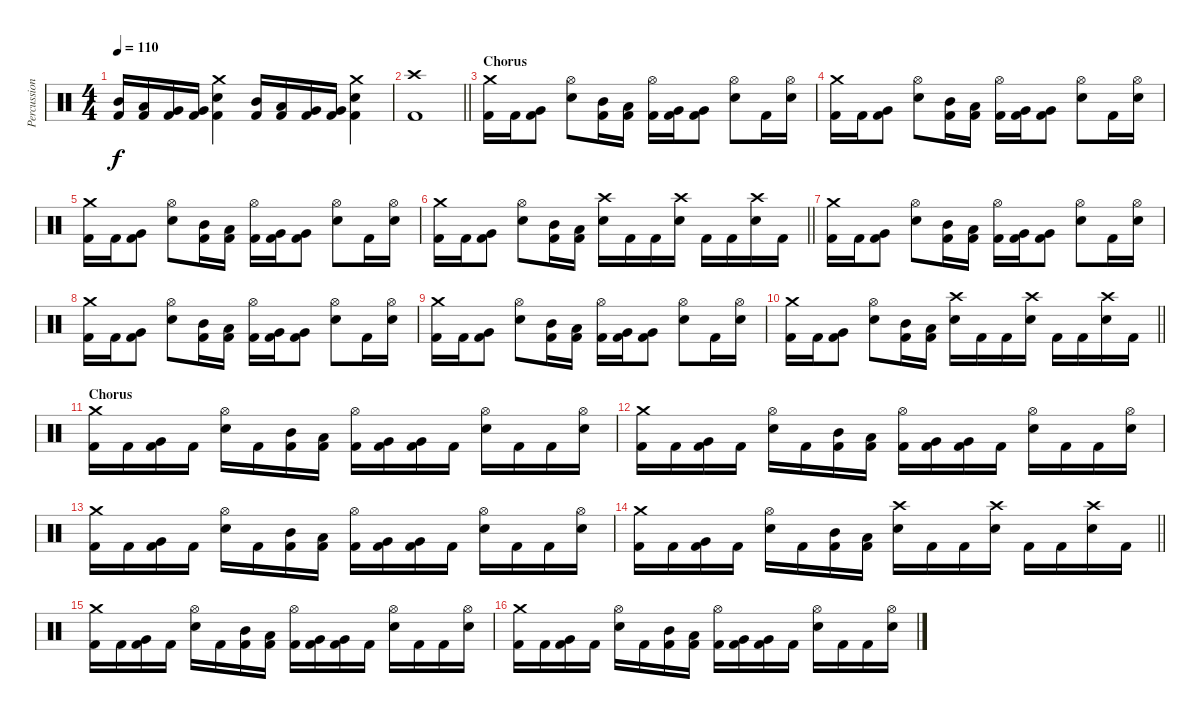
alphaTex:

\track ("Percussion" "Percussion") {instrument percussion}
\staff {score}
\articulation defaults
\ts (4 4)
\tempo 110
\clef neutral
\ks c
("Mid Tom (hit)" "Kick (hit) 2").16{dy f} ("Low Tom (hit)" "Kick (hit) 2").16 ("Very Low Tom (hit)" "Kick (hit) 2").16 ("Very Low Tom (hit)" "Kick (hit) 2").16 ("Snare (hit) 2" "Kick (hit) 2" "Crash medium (hit)").4 ("Mid Tom (hit)" "Kick (hit) 2").16 ("Low Tom (hit)" "Kick (hit) 2").16 ("Very Low Tom (hit)" "Kick (hit) 2").16 ("Very Low Tom (hit)" "Kick (hit) 2").16 ("Snare (hit) 2" "Kick (hit) 2" "Crash medium (hit)").4 |
\barLineRight lightlight
("Kick (hit) 2" "Crash high (hit)").1 |
\section ("" "Chorus")
("Kick (hit) 2" "Crash medium (hit)").16 "Kick (hit) 2".16 ("Very Low Tom (hit)" "Kick (hit) 2").8 ("Hi-Hat (open)" "Snare (hit) 2").8 ("Mid Tom (hit)" "Kick (hit) 2").16 ("Low Tom (hit)" "Kick (hit) 2").16 ("Hi-Hat (open)" "Kick (hit) 2").16 ("Very Low Tom (hit)" "Kick (hit) 2").16 ("Very Low Tom (hit)" "Kick (hit) 2").8 ("Hi-Hat (open)" "Snare (hit) 2").8 "Kick (hit) 2".16 ("Hi-Hat (open)" "Snare (hit) 2").16 |
("Kick (hit) 2" "Crash medium (hit)").16 "Kick (hit) 2".16 ("Very Low Tom (hit)" "Kick (hit) 2").8 ("Hi-Hat (open)" "Snare (hit) 2").8 ("Mid Tom (hit)" "Kick (hit) 2").16 ("Low Tom (hit)" "Kick (hit) 2").16 ("Hi-Hat (open)" "Kick (hit) 2").16 ("Very Low Tom (hit)" "Kick (hit) 2").16 ("Very Low Tom (hit)" "Kick (hit) 2").8 ("Hi-Hat (open)" "Snare (hit) 2").8 "Kick (hit) 2".16 ("Hi-Hat (open)" "Snare (hit) 2").16 |
("Kick (hit) 2" "Crash medium (hit)").16 "Kick (hit) 2".16 ("Very Low Tom (hit)" "Kick (hit) 2").8 ("Hi-Hat (open)" "Snare (hit) 2").8 ("Mid Tom (hit)" "Kick (hit) 2").16 ("Low Tom (hit)" "Kick (hit) 2").16 ("Hi-Hat (open)" "Kick (hit) 2").16 ("Very Low Tom (hit)" "Kick (hit) 2").16 ("Very Low Tom (hit)" "Kick (hit) 2").8 ("Hi-Hat (open)" "Snare (hit) 2").8 "Kick (hit) 2".16 ("Hi-Hat (open)" "Snare (hit) 2").16 |
\barLineRight lightlight
("Kick (hit) 2" "Crash medium (hit)").16 "Kick (hit) 2".16 ("Very Low Tom (hit)" "Kick (hit) 2").8 ("Hi-Hat (open)" "Snare (hit) 2").8 ("Mid Tom (hit)" "Kick (hit) 2").16 ("Low Tom (hit)" "Kick (hit) 2").16 ("Snare (hit) 2" "Crash high (hit)").16 "Kick (hit) 2".16 "Kick (hit) 2".16 ("Snare (hit) 2" "Crash high (hit)").16 "Kick (hit) 2".16 "Kick (hit) 2".16 ("Snare (hit) 2" "Crash high (hit)").16 "Kick (hit) 2".16 |
("Kick (hit) 2" "Crash medium (hit)").16 "Kick (hit) 2".16 ("Very Low Tom (hit)" "Kick (hit) 2").8 ("Hi-Hat (open)" "Snare (hit) 2").8 ("Mid Tom (hit)" "Kick (hit) 2").16 ("Low Tom (hit)" "Kick (hit) 2").16 ("Hi-Hat (open)" "Kick (hit) 2").16 ("Very Low Tom (hit)" "Kick (hit) 2").16 ("Very Low Tom (hit)" "Kick (hit) 2").8 ("Hi-Hat (open)" "Snare (hit) 2").8 "Kick (hit) 2".16 ("Hi-Hat (open)" "Snare (hit) 2").16 |
("Kick (hit) 2" "Crash medium (hit)").16 "Kick (hit) 2".16 ("Very Low Tom (hit)" "Kick (hit) 2").8 ("Hi-Hat (open)" "Snare (hit) 2").8 ("Mid Tom (hit)" "Kick (hit) 2").16 ("Low Tom (hit)" "Kick (hit) 2").16 ("Hi-Hat (open)" "Kick (hit) 2").16 ("Very Low Tom (hit)" "Kick (hit) 2").16 ("Very Low Tom (hit)" "Kick (hit) 2").8 ("Hi-Hat (open)" "Snare (hit) 2").8 "Kick (hit) 2".16 ("Hi-Hat (open)" "Snare (hit) 2").16 |
("Kick (hit) 2" "Crash medium (hit)").16 "Kick (hit) 2".16 ("Very Low Tom (hit)" "Kick (hit) 2").8 ("Hi-Hat (open)" "Snare (hit) 2").8 ("Mid Tom (hit)" "Kick (hit) 2").16 ("Low Tom (hit)" "Kick (hit) 2").16 ("Hi-Hat (open)" "Kick (hit) 2").16 ("Very Low Tom (hit)" "Kick (hit) 2").16 ("Very Low Tom (hit)" "Kick (hit) 2").8 ("Hi-Hat (open)" "Snare (hit) 2").8 "Kick (hit) 2".16 ("Hi-Hat (open)" "Snare (hit) 2").16 |
\barLineRight lightlight
("Kick (hit) 2" "Crash medium (hit)").16 "Kick (hit) 2".16 ("Very Low Tom (hit)" "Kick (hit) 2").8 ("Hi-Hat (open)" "Snare (hit) 2").8 ("Mid Tom (hit)" "Kick (hit) 2").16 ("Low Tom (hit)" "Kick (hit) 2").16 ("Snare (hit) 2" "Crash high (hit)").16 "Kick (hit) 2".16 "Kick (hit) 2".16 ("Snare (hit) 2" "Crash high (hit)").16 "Kick (hit) 2".16 "Kick (hit) 2".16 ("Snare (hit) 2" "Crash high (hit)").16 "Kick (hit) 2".16 |
\section ("" "Chorus")
("Kick (hit) 2" "Crash medium (hit)").16 "Kick (hit) 2".16 ("Very Low Tom (hit)" "Kick (hit) 2").16 "Kick (hit) 2".16 ("Hi-Hat (open)" "Snare (hit) 2").16 "Kick (hit) 2".16 ("Mid Tom (hit)" "Kick (hit) 2").16 ("Low Tom (hit)" "Kick (hit) 2").16 ("Hi-Hat (open)" "Kick (hit) 2").16 ("Very Low Tom (hit)" "Kick (hit) 2").16 ("Very Low Tom (hit)" "Kick (hit) 2").16 "Kick (hit) 2".16 ("Hi-Hat (open)" "Snare (hit) 2").16 "Kick (hit) 2".16 "Kick (hit) 2".16 ("Hi-Hat (open)" "Snare (hit) 2").16 |
("Kick (hit) 2" "Crash medium (hit)").16 "Kick (hit) 2".16 ("Very Low Tom (hit)" "Kick (hit) 2").16 "Kick (hit) 2".16 ("Hi-Hat (open)" "Snare (hit) 2").16 "Kick (hit) 2".16 ("Mid Tom (hit)" "Kick (hit) 2").16 ("Low Tom (hit)" "Kick (hit) 2").16 ("Hi-Hat (open)" "Kick (hit) 2").16 ("Very Low Tom (hit)" "Kick (hit) 2").16 ("Very Low Tom (hit)" "Kick (hit) 2").16 "Kick (hit) 2".16 ("Hi-Hat (open)" "Snare (hit) 2").16 "Kick (hit) 2".16 "Kick (hit) 2".16 ("Hi-Hat (open)" "Snare (hit) 2").16 |
("Kick (hit) 2" "Crash medium (hit)").16 "Kick (hit) 2".16 ("Very Low Tom (hit)" "Kick (hit) 2").16 "Kick (hit) 2".16 ("Hi-Hat (open)" "Snare (hit) 2").16 "Kick (hit) 2".16 ("Mid Tom (hit)" "Kick (hit) 2").16 ("Low Tom (hit)" "Kick (hit) 2").16 ("Hi-Hat (open)" "Kick (hit) 2").16 ("Very Low Tom (hit)" "Kick (hit) 2").16 ("Very Low Tom (hit)" "Kick (hit) 2").16 "Kick (hit) 2".16 ("Hi-Hat (open)" "Snare (hit) 2").16 "Kick (hit) 2".16 "Kick (hit) 2".16 ("Hi-Hat (open)" "Snare (hit) 2").16 |
\barLineRight lightlight
("Kick (hit) 2" "Crash medium (hit)").16 "Kick (hit) 2".16 ("Very Low Tom (hit)" "Kick (hit) 2").16 "Kick (hit) 2".16 ("Hi-Hat (open)" "Snare (hit) 2").16 "Kick (hit) 2".16 ("Mid Tom (hit)" "Kick (hit) 2").16 ("Low Tom (hit)" "Kick (hit) 2").16 ("Snare (hit) 2" "Crash high (hit)").16 "Kick (hit) 2".16 "Kick (hit) 2".16 ("Snare (hit) 2" "Crash high (hit)").16 "Kick (hit) 2".16 "Kick (hit) 2".16 ("Snare (hit) 2" "Crash high (hit)").16 "Kick (hit) 2".16 |
("Kick (hit) 2" "Crash medium (hit)").16 "Kick (hit) 2".16 ("Very Low Tom (hit)" "Kick (hit) 2").16 "Kick (hit) 2".16 ("Hi-Hat (open)" "Snare (hit) 2").16 "Kick (hit) 2".16 ("Mid Tom (hit)" "Kick (hit) 2").16 ("Low Tom (hit)" "Kick (hit) 2").16 ("Hi-Hat (open)" "Kick (hit) 2").16 ("Very Low Tom (hit)" "Kick (hit) 2").16 ("Very Low Tom (hit)" "Kick (hit) 2").16 "Kick (hit) 2".16 ("Hi-Hat (open)" "Snare (hit) 2").16 "Kick (hit) 2".16 "Kick (hit) 2".16 ("Hi-Hat (open)" "Snare (hit) 2").16 |
("Kick (hit) 2" "Crash medium (hit)").16 "Kick (hit) 2".16 ("Very Low Tom (hit)" "Kick (hit) 2").16 "Kick (hit) 2".16 ("Hi-Hat (open)" "Snare (hit) 2").16 "Kick (hit) 2".16 ("Mid Tom (hit)" "Kick (hit) 2").16 ("Low Tom (hit)" "Kick (hit) 2").16 ("Hi-Hat (open)" "Kick (hit) 2").16 ("Very Low Tom (hit)" "Kick (hit) 2").16 ("Very Low Tom (hit)" "Kick (hit) 2").16 "Kick (hit) 2".16 ("Hi-Hat (open)" "Snare (hit) 2").16 "Kick (hit) 2".16 "Kick (hit) 2".16 ("Hi-Hat (open)" "Snare (hit) 2").16
